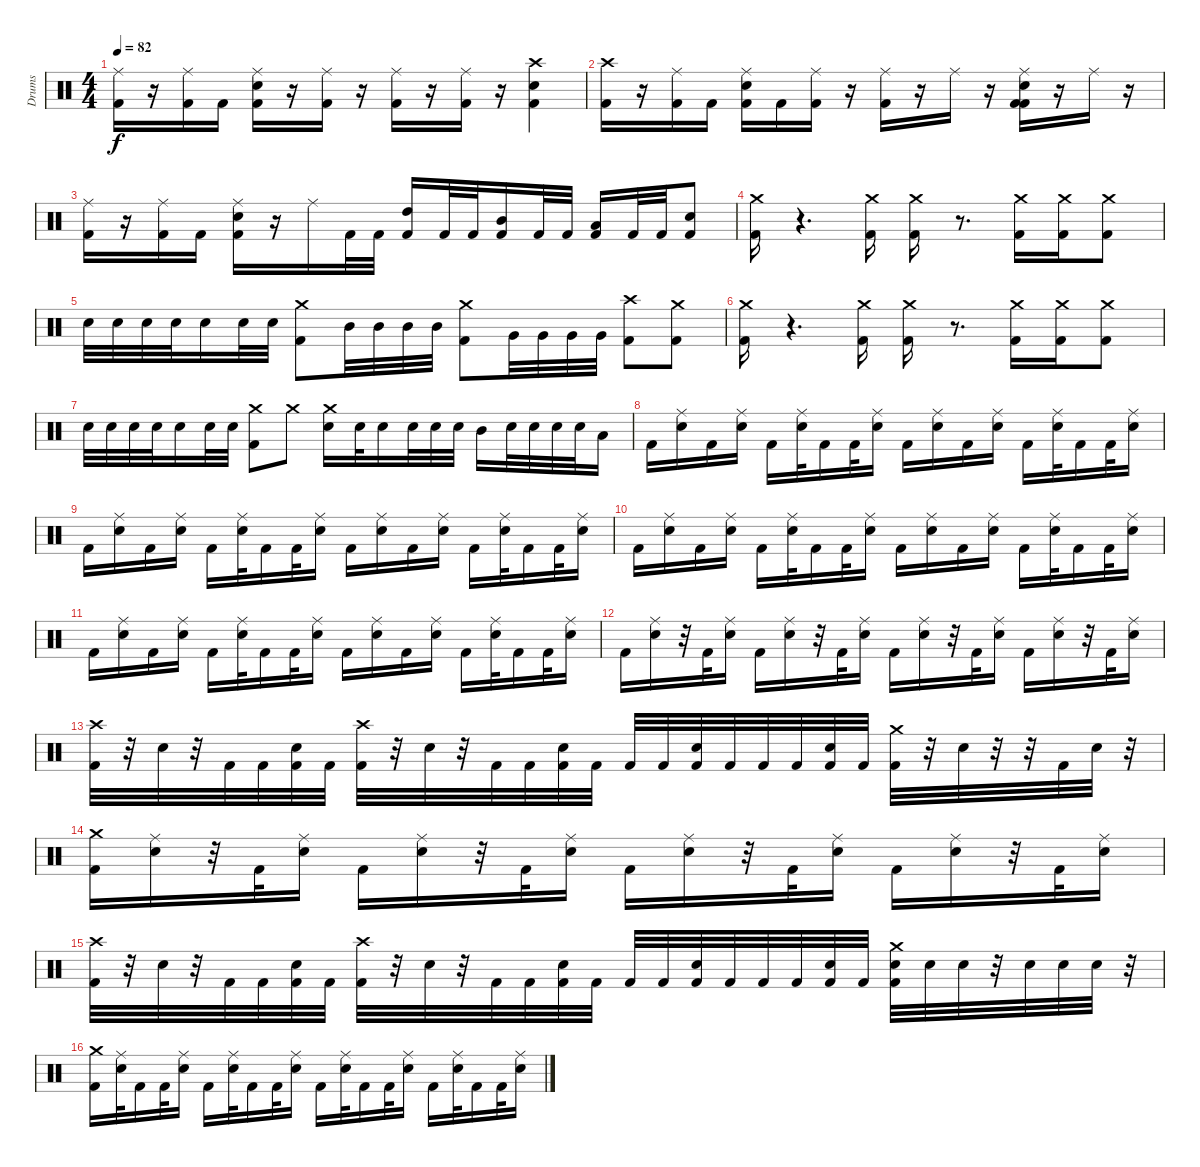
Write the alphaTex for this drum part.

\track ("Drums" "Drums") {instrument percussion}
\staff {score}
\articulation defaults
\ts (4 4)
\tempo 82
\clef neutral
\ks c
("Ride (middle)" "Kick (hit) 2").16{dy f} r.16 ("Ride (middle)" "Kick (hit) 2").16 "Kick (hit) 2".16 ("Ride (middle)" "Electric Snare (hit)" "Kick (hit) 2").16 r.16 ("Ride (middle)" "Kick (hit) 2").16 r.16 ("Ride (middle)" "Kick (hit) 2").16 r.16 ("Ride (middle)" "Kick (hit) 2").16 r.16 ("Crash high (hit)" "Electric Snare (hit)" "Kick (hit) 2").4 |
("Crash high (hit)" "Kick (hit) 2").16 r.16 ("Ride (middle)" "Kick (hit) 2").16 "Kick (hit) 2".16 ("Ride (middle)" "Electric Snare (hit)" "Kick (hit) 2").16 "Kick (hit) 2".16 ("Ride (middle)" "Kick (hit) 2").16 r.16 ("Ride (middle)" "Kick (hit) 2").16 r.16 "Ride (middle)".16 r.16 ("Ride (middle)" "Electric Snare (hit)" "Kick (hit) 2" "Kick (hit) 2").16 r.16 "Ride (middle)".16 r.16 |
("Ride (middle)" "Kick (hit) 2").16 r.16 ("Ride (middle)" "Kick (hit) 2").16 "Kick (hit) 2".16 ("Ride (middle)" "Electric Snare (hit)" "Kick (hit) 2").16 r.16 "Ride (middle)".16 "Kick (hit) 2".32 "Kick (hit) 2".32 ("High Tom (hit)" "Kick (hit) 2").16 "Kick (hit) 2".32 "Kick (hit) 2".32 ("Mid Tom (hit)" "Kick (hit) 2").16 "Kick (hit) 2".32 "Kick (hit) 2".32 ("Low Tom (hit)" "Kick (hit) 2").16 "Kick (hit) 2".32 "Kick (hit) 2".32 ("Electric Snare (hit)" "Kick (hit) 2").8 |
("Crash medium (hit)" "Kick (hit) 2").16 r.4{d} ("Crash medium (hit)" "Kick (hit) 2").16 ("Crash medium (hit)" "Kick (hit) 2").16 r.8{d} ("Crash medium (hit)" "Kick (hit) 2").16 ("Crash medium (hit)" "Kick (hit) 2").16 ("Crash medium (hit)" "Kick (hit) 2").8 |
"Electric Snare (hit)".32 "Electric Snare (hit)".32 "Electric Snare (hit)".32 "Electric Snare (hit)".32 "Electric Snare (hit)".16 "Electric Snare (hit)".32 "Electric Snare (hit)".32 ("Crash medium (hit)" "Kick (hit) 2").8 "Mid Tom (hit)".32 "Mid Tom (hit)".32 "Mid Tom (hit)".32 "Mid Tom (hit)".32 ("Crash medium (hit)" "Kick (hit) 2").8 "Very Low Tom (hit)".32 "Very Low Tom (hit)".32 "Very Low Tom (hit)".32 "Very Low Tom (hit)".32 ("Crash high (hit)" "Kick (hit) 2").8 ("Crash medium (hit)" "Kick (hit) 2").8 |
("Crash medium (hit)" "Kick (hit) 2").16 r.4{d} ("Crash medium (hit)" "Kick (hit) 2").16 ("Crash medium (hit)" "Kick (hit) 2").16 r.8{d} ("Crash medium (hit)" "Kick (hit) 2").16 ("Crash medium (hit)" "Kick (hit) 2").16 ("Crash medium (hit)" "Kick (hit) 2").8 |
"Electric Snare (hit)".32 "Electric Snare (hit)".32 "Electric Snare (hit)".32 "Electric Snare (hit)".32 "Electric Snare (hit)".16 "Electric Snare (hit)".32 "Electric Snare (hit)".32 ("Crash medium (hit)" "Kick (hit) 2").8 "Crash medium (hit)".8 ("Crash medium (hit)" "Electric Snare (hit)").16 "Electric Snare (hit)".32 "Electric Snare (hit)".16 "Electric Snare (hit)".32 "Electric Snare (hit)".32 "Electric Snare (hit)".32 "Mid Tom (hit)".16 "Electric Snare (hit)".32 "Electric Snare (hit)".32 "Electric Snare (hit)".32 "Electric Snare (hit)".32 "Low Tom (hit)".16 |
"Kick (hit) 2".16 ("Ride (middle)" "Electric Snare (hit)").16 "Kick (hit) 2".16 ("Ride (middle)" "Electric Snare (hit)").16 "Kick (hit) 2".16 ("Ride (middle)" "Electric Snare (hit)").32 "Kick (hit) 2".16 "Kick (hit) 2".32 ("Ride (middle)" "Electric Snare (hit)").16 "Kick (hit) 2".16 ("Ride (middle)" "Electric Snare (hit)").16 "Kick (hit) 2".16 ("Ride (middle)" "Electric Snare (hit)").16 "Kick (hit) 2".16 ("Ride (middle)" "Electric Snare (hit)").32 "Kick (hit) 2".16 "Kick (hit) 2".32 ("Ride (middle)" "Electric Snare (hit)").16 |
"Kick (hit) 2".16 ("Ride (middle)" "Electric Snare (hit)").16 "Kick (hit) 2".16 ("Ride (middle)" "Electric Snare (hit)").16 "Kick (hit) 2".16 ("Ride (middle)" "Electric Snare (hit)").32 "Kick (hit) 2".16 "Kick (hit) 2".32 ("Ride (middle)" "Electric Snare (hit)").16 "Kick (hit) 2".16 ("Ride (middle)" "Electric Snare (hit)").16 "Kick (hit) 2".16 ("Ride (middle)" "Electric Snare (hit)").16 "Kick (hit) 2".16 ("Ride (middle)" "Electric Snare (hit)").32 "Kick (hit) 2".16 "Kick (hit) 2".32 ("Ride (middle)" "Electric Snare (hit)").16 |
"Kick (hit) 2".16 ("Ride (middle)" "Electric Snare (hit)").16 "Kick (hit) 2".16 ("Ride (middle)" "Electric Snare (hit)").16 "Kick (hit) 2".16 ("Ride (middle)" "Electric Snare (hit)").32 "Kick (hit) 2".16 "Kick (hit) 2".32 ("Ride (middle)" "Electric Snare (hit)").16 "Kick (hit) 2".16 ("Ride (middle)" "Electric Snare (hit)").16 "Kick (hit) 2".16 ("Ride (middle)" "Electric Snare (hit)").16 "Kick (hit) 2".16 ("Ride (middle)" "Electric Snare (hit)").32 "Kick (hit) 2".16 "Kick (hit) 2".32 ("Ride (middle)" "Electric Snare (hit)").16 |
"Kick (hit) 2".16 ("Ride (middle)" "Electric Snare (hit)").16 "Kick (hit) 2".16 ("Ride (middle)" "Electric Snare (hit)").16 "Kick (hit) 2".16 ("Ride (middle)" "Electric Snare (hit)").32 "Kick (hit) 2".16 "Kick (hit) 2".32 ("Ride (middle)" "Electric Snare (hit)").16 "Kick (hit) 2".16 ("Ride (middle)" "Electric Snare (hit)").16 "Kick (hit) 2".16 ("Ride (middle)" "Electric Snare (hit)").16 "Kick (hit) 2".16 ("Ride (middle)" "Electric Snare (hit)").32 "Kick (hit) 2".16 "Kick (hit) 2".32 ("Ride (middle)" "Electric Snare (hit)").16 |
"Kick (hit) 2".16 ("Ride (middle)" "Electric Snare (hit)").16 r.32 "Kick (hit) 2".32 ("Ride (middle)" "Electric Snare (hit)").16 "Kick (hit) 2".16 ("Ride (middle)" "Electric Snare (hit)").16 r.32 "Kick (hit) 2".32 ("Ride (middle)" "Electric Snare (hit)").16 "Kick (hit) 2".16 ("Ride (middle)" "Electric Snare (hit)").16 r.32 "Kick (hit) 2".32 ("Ride (middle)" "Electric Snare (hit)").16 "Kick (hit) 2".16 ("Ride (middle)" "Electric Snare (hit)").16 r.32 "Kick (hit) 2".32 ("Ride (middle)" "Electric Snare (hit)").16 |
("Crash high (hit)" "Kick (hit) 2").32 r.32 "Electric Snare (hit)".32 r.32 "Kick (hit) 2".32 "Kick (hit) 2".32 ("Electric Snare (hit)" "Kick (hit) 2").32 "Kick (hit) 2".32 ("Crash high (hit)" "Kick (hit) 2").32 r.32 "Electric Snare (hit)".32 r.32 "Kick (hit) 2".32 "Kick (hit) 2".32 ("Electric Snare (hit)" "Kick (hit) 2").32 "Kick (hit) 2".32 "Kick (hit) 2".32 "Kick (hit) 2".32 ("Electric Snare (hit)" "Kick (hit) 2").32 "Kick (hit) 2".32 "Kick (hit) 2".32 "Kick (hit) 2".32 ("Electric Snare (hit)" "Kick (hit) 2").32 "Kick (hit) 2".32 ("Crash medium (hit)" "Kick (hit) 2").32 r.32 "Electric Snare (hit)".32 r.32 r.32 "Kick (hit) 2".32 "Electric Snare (hit)".32 r.32 |
("Crash medium (hit)" "Kick (hit) 2").16 ("Ride (middle)" "Electric Snare (hit)").16 r.32 "Kick (hit) 2".32 ("Ride (middle)" "Electric Snare (hit)").16 "Kick (hit) 2".16 ("Ride (middle)" "Electric Snare (hit)").16 r.32 "Kick (hit) 2".32 ("Ride (middle)" "Electric Snare (hit)").16 "Kick (hit) 2".16 ("Ride (middle)" "Electric Snare (hit)").16 r.32 "Kick (hit) 2".32 ("Ride (middle)" "Electric Snare (hit)").16 "Kick (hit) 2".16 ("Ride (middle)" "Electric Snare (hit)").16 r.32 "Kick (hit) 2".32 ("Ride (middle)" "Electric Snare (hit)").16 |
("Crash high (hit)" "Kick (hit) 2").32 r.32 "Electric Snare (hit)".32 r.32 "Kick (hit) 2".32 "Kick (hit) 2".32 ("Electric Snare (hit)" "Kick (hit) 2").32 "Kick (hit) 2".32 ("Crash high (hit)" "Kick (hit) 2").32 r.32 "Electric Snare (hit)".32 r.32 "Kick (hit) 2".32 "Kick (hit) 2".32 ("Electric Snare (hit)" "Kick (hit) 2").32 "Kick (hit) 2".32 "Kick (hit) 2".32 "Kick (hit) 2".32 ("Electric Snare (hit)" "Kick (hit) 2").32 "Kick (hit) 2".32 "Kick (hit) 2".32 "Kick (hit) 2".32 ("Electric Snare (hit)" "Kick (hit) 2").32 "Kick (hit) 2".32 ("Crash medium (hit)" "Electric Snare (hit)" "Kick (hit) 2").32 "Electric Snare (hit)".32 "Electric Snare (hit)".32 r.32 "Electric Snare (hit)".32 "Electric Snare (hit)".32 "Electric Snare (hit)".32 r.32 |
("Crash medium (hit)" "Kick (hit) 2").16 ("Ride (middle)" "Electric Snare (hit)").32 "Kick (hit) 2".16 "Kick (hit) 2".32 ("Ride (middle)" "Electric Snare (hit)").16 "Kick (hit) 2".16 ("Ride (middle)" "Electric Snare (hit)").32 "Kick (hit) 2".16 "Kick (hit) 2".32 ("Ride (middle)" "Electric Snare (hit)").16 "Kick (hit) 2".16 ("Ride (middle)" "Electric Snare (hit)").32 "Kick (hit) 2".16 "Kick (hit) 2".32 ("Ride (middle)" "Electric Snare (hit)").16 "Kick (hit) 2".16 ("Ride (middle)" "Electric Snare (hit)").32 "Kick (hit) 2".16 "Kick (hit) 2".32 ("Ride (middle)" "Electric Snare (hit)").16
